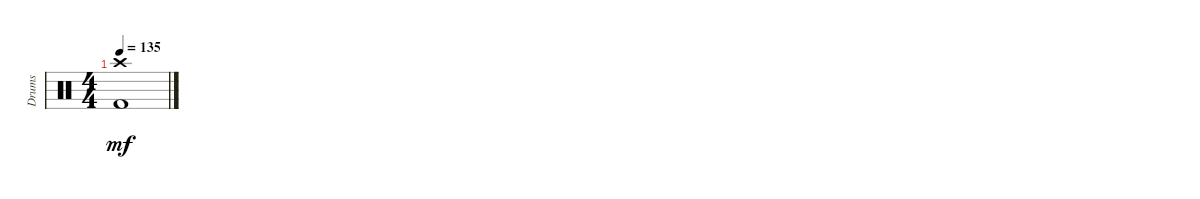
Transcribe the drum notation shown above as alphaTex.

\track ("Drums" "Drums") {instrument percussion}
\staff {score}
\articulation defaults
\ts (4 4)
\tempo 135
\clef neutral
\ks c
("Crash high (hit)" "Kick (hit) 2").1{dy mf}
